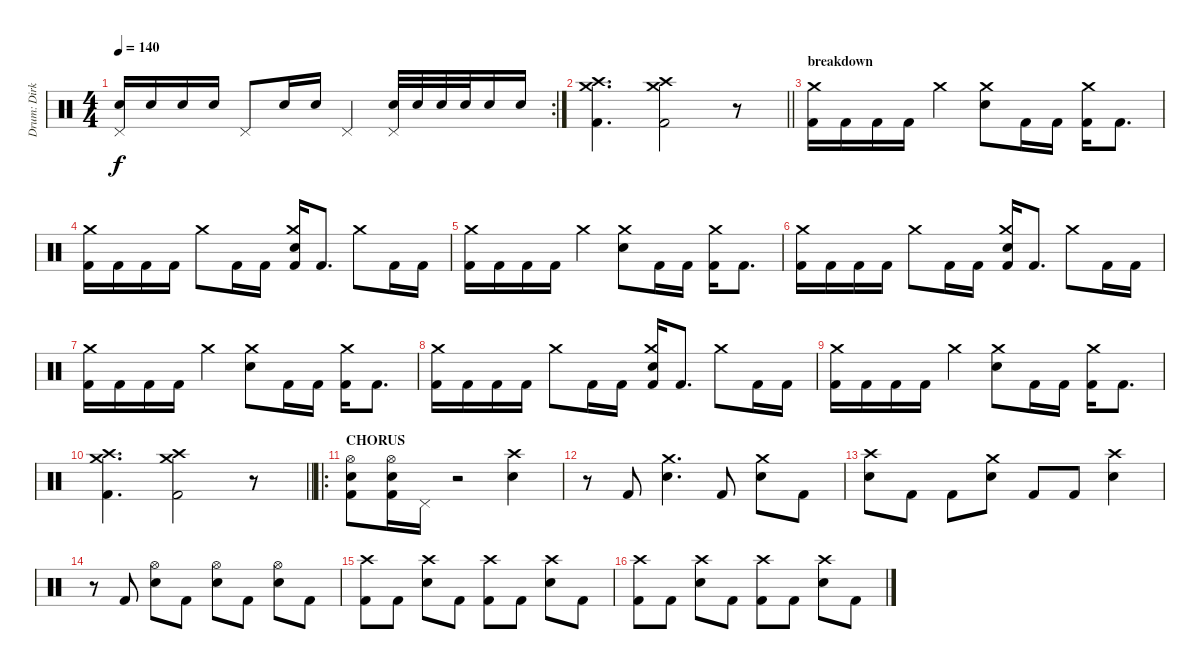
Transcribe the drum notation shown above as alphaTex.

\track ("Drum: Dirk" "Drum: Dirk") {instrument percussion}
\staff {score}
\articulation defaults
\rc 2
\ts (4 4)
\tempo 140
\clef neutral
\ks c
("Pedal Hi-Hat (hit)" "Electric Snare (hit)").16{dy f} "Electric Snare (hit)".16 "Electric Snare (hit)".16 "Electric Snare (hit)".16 "Pedal Hi-Hat (hit)".8 "Electric Snare (hit)".16 "Electric Snare (hit)".16 "Pedal Hi-Hat (hit)".4 ("Pedal Hi-Hat (hit)" "Electric Snare (hit)").32 "Electric Snare (hit)".32 "Electric Snare (hit)".32 "Electric Snare (hit)".32 "Electric Snare (hit)".16 "Electric Snare (hit)".16 |
\barLineRight lightlight
("Crash high (hit)" "Crash medium (hit)" "Kick (hit) 2").4{d} ("Crash high (hit)" "Crash medium (hit)" "Kick (hit) 2").2 r.8 |
\section ("" "breakdown")
("Crash medium (hit)" "Kick (hit) 2").16 "Kick (hit) 2".16 "Kick (hit) 2".16 "Kick (hit) 2".16 "Crash medium (hit)".4 ("Crash medium (hit)" "Electric Snare (hit)").8 "Kick (hit) 2".16 "Kick (hit) 2".16 ("Crash medium (hit)" "Kick (hit) 2").16 "Kick (hit) 2".8{d} |
("Crash medium (hit)" "Kick (hit) 2").16 "Kick (hit) 2".16 "Kick (hit) 2".16 "Kick (hit) 2".16 "Crash medium (hit)".8 "Kick (hit) 2".16 "Kick (hit) 2".16 ("Crash medium (hit)" "Electric Snare (hit)" "Kick (hit) 2").16 "Kick (hit) 2".8{d} "Crash medium (hit)".8 "Kick (hit) 2".16 "Kick (hit) 2".16 |
("Crash medium (hit)" "Kick (hit) 2").16 "Kick (hit) 2".16 "Kick (hit) 2".16 "Kick (hit) 2".16 "Crash medium (hit)".4 ("Crash medium (hit)" "Electric Snare (hit)").8 "Kick (hit) 2".16 "Kick (hit) 2".16 ("Crash medium (hit)" "Kick (hit) 2").16 "Kick (hit) 2".8{d} |
("Crash medium (hit)" "Kick (hit) 2").16 "Kick (hit) 2".16 "Kick (hit) 2".16 "Kick (hit) 2".16 "Crash medium (hit)".8 "Kick (hit) 2".16 "Kick (hit) 2".16 ("Crash medium (hit)" "Electric Snare (hit)" "Kick (hit) 2").16 "Kick (hit) 2".8{d} "Crash medium (hit)".8 "Kick (hit) 2".16 "Kick (hit) 2".16 |
("Crash medium (hit)" "Kick (hit) 2").16 "Kick (hit) 2".16 "Kick (hit) 2".16 "Kick (hit) 2".16 "Crash medium (hit)".4 ("Crash medium (hit)" "Electric Snare (hit)").8 "Kick (hit) 2".16 "Kick (hit) 2".16 ("Crash medium (hit)" "Kick (hit) 2").16 "Kick (hit) 2".8{d} |
("Crash medium (hit)" "Kick (hit) 2").16 "Kick (hit) 2".16 "Kick (hit) 2".16 "Kick (hit) 2".16 "Crash medium (hit)".8 "Kick (hit) 2".16 "Kick (hit) 2".16 ("Crash medium (hit)" "Electric Snare (hit)" "Kick (hit) 2").16 "Kick (hit) 2".8{d} "Crash medium (hit)".8 "Kick (hit) 2".16 "Kick (hit) 2".16 |
("Crash medium (hit)" "Kick (hit) 2").16 "Kick (hit) 2".16 "Kick (hit) 2".16 "Kick (hit) 2".16 "Crash medium (hit)".4 ("Crash medium (hit)" "Electric Snare (hit)").8 "Kick (hit) 2".16 "Kick (hit) 2".16 ("Crash medium (hit)" "Kick (hit) 2").16 "Kick (hit) 2".8{d} |
\barLineRight lightlight
("Crash high (hit)" "Crash medium (hit)" "Kick (hit) 2").4{d} ("Crash high (hit)" "Crash medium (hit)" "Kick (hit) 2").2 r.8 |
\ro
\section ("" "CHORUS")
("Hi-Hat (open)" "Electric Snare (hit)" "Kick (hit) 2").8 ("Hi-Hat (open)" "Electric Snare (hit)" "Kick (hit) 2").16 "Pedal Hi-Hat (hit)".16 r.2 ("Crash high (hit)" "Electric Snare (hit)").4 |
r.8 "Kick (hit) 2".8 ("Crash medium (hit)" "Electric Snare (hit)").4{d} "Kick (hit) 2".8 ("Crash medium (hit)" "Electric Snare (hit)").8 "Kick (hit) 2".8 |
("Crash high (hit)" "Electric Snare (hit)").8 "Kick (hit) 2".8 "Kick (hit) 2".8 ("Crash medium (hit)" "Electric Snare (hit)").8 "Kick (hit) 2".8 "Kick (hit) 2".8 ("Crash high (hit)" "Electric Snare (hit)").4 |
r.8 "Kick (hit) 2".8 ("Hi-Hat (open)" "Electric Snare (hit)").8 "Kick (hit) 2".8 ("Hi-Hat (open)" "Electric Snare (hit)").8 "Kick (hit) 2".8 ("Hi-Hat (open)" "Electric Snare (hit)").8 "Kick (hit) 2".8 |
("Crash high (hit)" "Kick (hit) 2").8 "Kick (hit) 2".8 ("Crash high (hit)" "Electric Snare (hit)").8 "Kick (hit) 2".8 ("Crash high (hit)" "Kick (hit) 2").8 "Kick (hit) 2".8 ("Crash high (hit)" "Electric Snare (hit)").8 "Kick (hit) 2".8 |
("Crash high (hit)" "Kick (hit) 2").8 "Kick (hit) 2".8 ("Crash high (hit)" "Electric Snare (hit)").8 "Kick (hit) 2".8 ("Crash high (hit)" "Kick (hit) 2").8 "Kick (hit) 2".8 ("Crash high (hit)" "Electric Snare (hit)").8 "Kick (hit) 2".8
